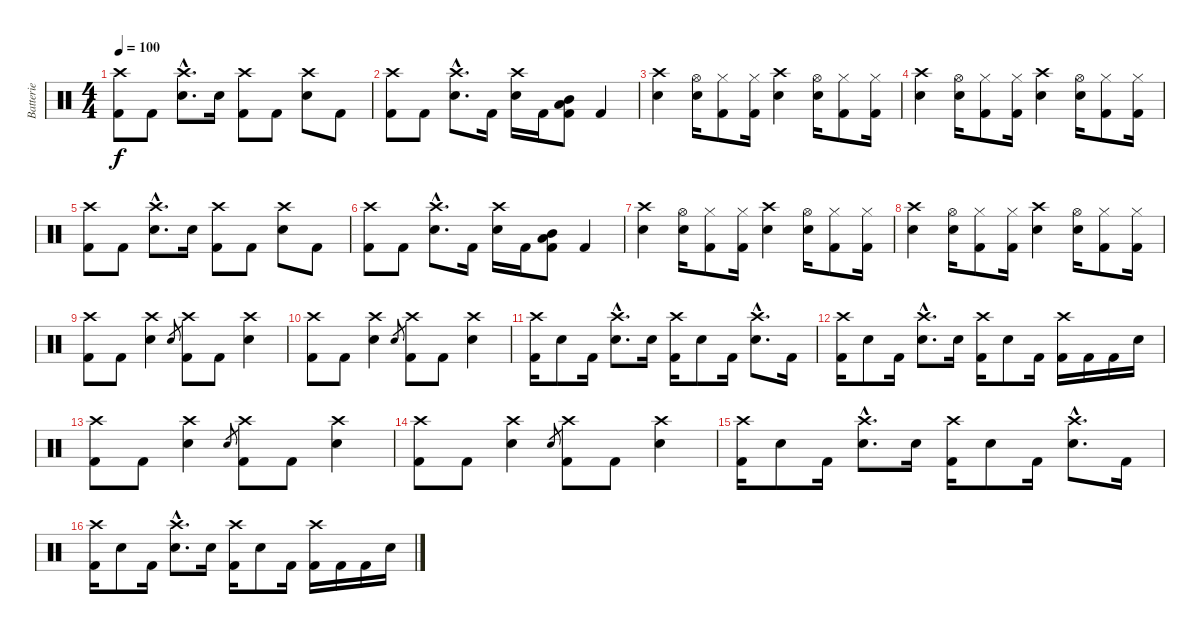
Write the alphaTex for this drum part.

\track ("Batterie" "Batterie") {instrument percussion}
\staff {score}
\articulation defaults
\ts (4 4)
\tempo 100
\clef neutral
\ks c
("Crash high (hit)" "Kick (hit) 2").8{dy f} "Kick (hit) 2".8 ("Crash high (hit)"{hac} "Snare (hit) 2"{hac}).8{d} "Snare (hit) 2".16 ("Crash high (hit)" "Kick (hit) 2").8 "Kick (hit) 2".8 ("Crash high (hit)" "Snare (hit) 2").8 "Kick (hit) 2".8 |
("Crash high (hit)" "Kick (hit) 2").8 "Kick (hit) 2".8 ("Crash high (hit)"{hac} "Snare (hit) 2"{hac}).8{d} "Kick (hit) 2".16 ("Crash high (hit)" "Snare (hit) 2").16 "Kick (hit) 2".16 ("Low Tom (hit)" "Mid Tom (hit)" "Kick (hit) 2").8 "Kick (hit) 2"{tr (36 32)}.4 |
("Crash high (hit)" "Snare (hit) 2").4 ("Hi-Hat (open)" "Snare (hit) 2").16 ("Hi-Hat (closed)" "Kick (hit) 2").8 ("Hi-Hat (closed)" "Kick (hit) 2").16 ("Crash high (hit)" "Snare (hit) 2").4 ("Hi-Hat (open)" "Snare (hit) 2").16 ("Hi-Hat (closed)" "Kick (hit) 2").8 ("Hi-Hat (closed)" "Kick (hit) 2").16 |
("Crash high (hit)" "Snare (hit) 2").4 ("Hi-Hat (open)" "Snare (hit) 2").16 ("Hi-Hat (closed)" "Kick (hit) 2").8 ("Hi-Hat (closed)" "Kick (hit) 2").16 ("Crash high (hit)" "Snare (hit) 2").4 ("Hi-Hat (open)" "Snare (hit) 2").16 ("Hi-Hat (closed)" "Kick (hit) 2").8 ("Hi-Hat (closed)" "Kick (hit) 2").16 |
("Crash high (hit)" "Kick (hit) 2").8 "Kick (hit) 2".8 ("Crash high (hit)"{hac} "Snare (hit) 2"{hac}).8{d} "Snare (hit) 2".16 ("Crash high (hit)" "Kick (hit) 2").8 "Kick (hit) 2".8 ("Crash high (hit)" "Snare (hit) 2").8 "Kick (hit) 2".8 |
("Crash high (hit)" "Kick (hit) 2").8 "Kick (hit) 2".8 ("Crash high (hit)"{hac} "Snare (hit) 2"{hac}).8{d} "Kick (hit) 2".16 ("Crash high (hit)" "Snare (hit) 2").16 "Kick (hit) 2".16 ("Low Tom (hit)" "Mid Tom (hit)" "Kick (hit) 2").8 "Kick (hit) 2"{tr (36 32)}.4 |
("Crash high (hit)" "Snare (hit) 2").4 ("Hi-Hat (open)" "Snare (hit) 2").16 ("Hi-Hat (closed)" "Kick (hit) 2").8 ("Hi-Hat (closed)" "Kick (hit) 2").16 ("Crash high (hit)" "Snare (hit) 2").4 ("Hi-Hat (open)" "Snare (hit) 2").16 ("Hi-Hat (closed)" "Kick (hit) 2").8 ("Hi-Hat (closed)" "Kick (hit) 2").16 |
("Crash high (hit)" "Snare (hit) 2").4 ("Hi-Hat (open)" "Snare (hit) 2").16 ("Hi-Hat (closed)" "Kick (hit) 2").8 ("Hi-Hat (closed)" "Kick (hit) 2").16 ("Crash high (hit)" "Snare (hit) 2").4 ("Hi-Hat (open)" "Snare (hit) 2").16 ("Hi-Hat (closed)" "Kick (hit) 2").8 ("Hi-Hat (closed)" "Kick (hit) 2").16 |
("Crash high (hit)" "Kick (hit) 2").8 "Kick (hit) 2".8 ("Crash high (hit)" "Snare (hit) 2").4 "Snare (hit) 2".8{gr} ("Crash high (hit)" "Kick (hit) 2").8 "Kick (hit) 2".8 ("Crash high (hit)" "Snare (hit) 2").4 |
("Crash high (hit)" "Kick (hit) 2").8 "Kick (hit) 2".8 ("Crash high (hit)" "Snare (hit) 2").4 "Snare (hit) 2".8{gr} ("Crash high (hit)" "Kick (hit) 2").8 "Kick (hit) 2".8 ("Crash high (hit)" "Snare (hit) 2").4 |
("Crash high (hit)" "Kick (hit) 2").16 "Snare (hit) 2".8 "Kick (hit) 2".16 ("Crash high (hit)"{hac} "Snare (hit) 2"{hac}).8{d} "Snare (hit) 2".16 ("Crash high (hit)" "Kick (hit) 2").16 "Snare (hit) 2".8 "Kick (hit) 2".16 ("Crash high (hit)"{hac} "Snare (hit) 2"{hac}).8{d} "Kick (hit) 2".16 |
("Crash high (hit)" "Kick (hit) 2").16 "Snare (hit) 2".8 "Kick (hit) 2".16 ("Crash high (hit)"{hac} "Snare (hit) 2"{hac}).8{d} "Snare (hit) 2".16 ("Crash high (hit)" "Kick (hit) 2").16 "Snare (hit) 2".8 "Kick (hit) 2".16 ("Crash high (hit)" "Kick (hit) 2").16 "Kick (hit) 2".16 "Kick (hit) 2".16 "Snare (hit) 2".16 |
("Crash high (hit)" "Kick (hit) 2").8 "Kick (hit) 2".8 ("Crash high (hit)" "Snare (hit) 2").4 "Snare (hit) 2".8{gr} ("Crash high (hit)" "Kick (hit) 2").8 "Kick (hit) 2".8 ("Crash high (hit)" "Snare (hit) 2").4 |
("Crash high (hit)" "Kick (hit) 2").8 "Kick (hit) 2".8 ("Crash high (hit)" "Snare (hit) 2").4 "Snare (hit) 2".8{gr} ("Crash high (hit)" "Kick (hit) 2").8 "Kick (hit) 2".8 ("Crash high (hit)" "Snare (hit) 2").4 |
("Crash high (hit)" "Kick (hit) 2").16 "Snare (hit) 2".8 "Kick (hit) 2".16 ("Crash high (hit)"{hac} "Snare (hit) 2"{hac}).8{d} "Snare (hit) 2".16 ("Crash high (hit)" "Kick (hit) 2").16 "Snare (hit) 2".8 "Kick (hit) 2".16 ("Crash high (hit)"{hac} "Snare (hit) 2"{hac}).8{d} "Kick (hit) 2".16 |
("Crash high (hit)" "Kick (hit) 2").16 "Snare (hit) 2".8 "Kick (hit) 2".16 ("Crash high (hit)"{hac} "Snare (hit) 2"{hac}).8{d} "Snare (hit) 2".16 ("Crash high (hit)" "Kick (hit) 2").16 "Snare (hit) 2".8 "Kick (hit) 2".16 ("Crash high (hit)" "Kick (hit) 2").16 "Kick (hit) 2".16 "Kick (hit) 2".16 "Snare (hit) 2".16
